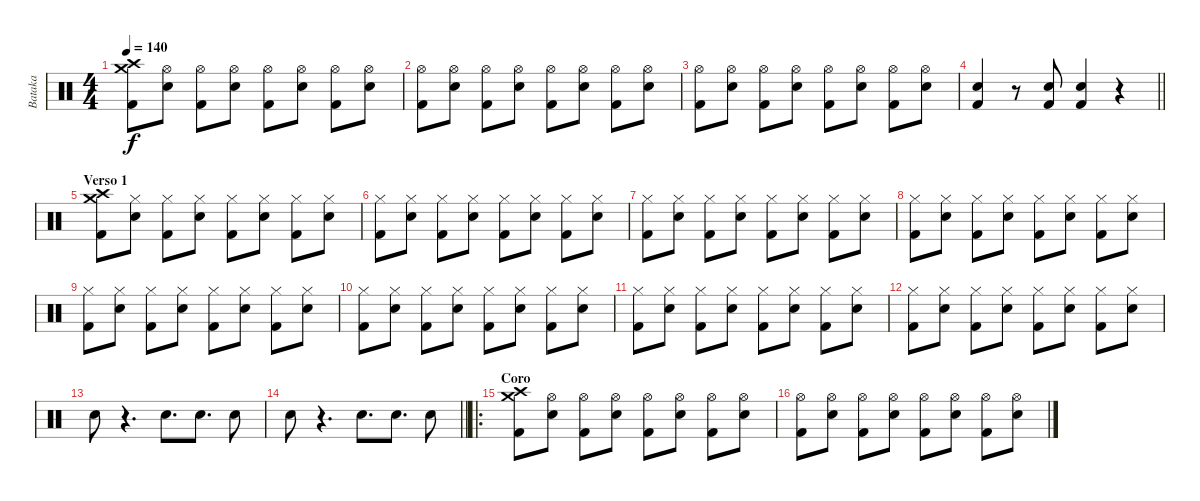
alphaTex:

\track ("Bataka" "Bataka") {instrument percussion}
\staff {score}
\articulation defaults
\ts (4 4)
\tempo 140
\clef neutral
\ks c
("Crash high (hit)" "Crash medium (hit)" "Kick (hit) 2").8{dy f} ("Hi-Hat (open)" "Electric Snare (hit)").8 ("Hi-Hat (open)" "Kick (hit) 2").8 ("Hi-Hat (open)" "Electric Snare (hit)").8 ("Hi-Hat (open)" "Kick (hit) 2").8 ("Hi-Hat (open)" "Electric Snare (hit)").8 ("Hi-Hat (open)" "Kick (hit) 2").8 ("Hi-Hat (open)" "Electric Snare (hit)").8 |
("Hi-Hat (open)" "Kick (hit) 2").8 ("Hi-Hat (open)" "Electric Snare (hit)").8 ("Hi-Hat (open)" "Kick (hit) 2").8 ("Hi-Hat (open)" "Electric Snare (hit)").8 ("Hi-Hat (open)" "Kick (hit) 2").8 ("Hi-Hat (open)" "Electric Snare (hit)").8 ("Hi-Hat (open)" "Kick (hit) 2").8 ("Hi-Hat (open)" "Electric Snare (hit)").8 |
("Hi-Hat (open)" "Kick (hit) 2").8 ("Hi-Hat (open)" "Electric Snare (hit)").8 ("Hi-Hat (open)" "Kick (hit) 2").8 ("Hi-Hat (open)" "Electric Snare (hit)").8 ("Hi-Hat (open)" "Kick (hit) 2").8 ("Hi-Hat (open)" "Electric Snare (hit)").8 ("Hi-Hat (open)" "Kick (hit) 2").8 ("Hi-Hat (open)" "Electric Snare (hit)").8 |
\barLineRight lightlight
("Electric Snare (hit)" "Kick (hit) 2").4 r.8 ("Electric Snare (hit)" "Kick (hit) 2").8 ("Electric Snare (hit)" "Kick (hit) 2").4 r.4 |
\section ("" "Verso 1")
("Crash high (hit)" "Crash medium (hit)" "Kick (hit) 2").8 ("Hi-Hat (closed)" "Electric Snare (hit)").8 ("Hi-Hat (closed)" "Kick (hit) 2").8 ("Hi-Hat (closed)" "Electric Snare (hit)").8 ("Hi-Hat (closed)" "Kick (hit) 2").8 ("Hi-Hat (closed)" "Electric Snare (hit)").8 ("Hi-Hat (closed)" "Kick (hit) 2").8 ("Hi-Hat (closed)" "Electric Snare (hit)").8 |
("Hi-Hat (closed)" "Kick (hit) 2").8 ("Hi-Hat (closed)" "Electric Snare (hit)").8 ("Hi-Hat (closed)" "Kick (hit) 2").8 ("Hi-Hat (closed)" "Electric Snare (hit)").8 ("Hi-Hat (closed)" "Kick (hit) 2").8 ("Hi-Hat (closed)" "Electric Snare (hit)").8 ("Hi-Hat (closed)" "Kick (hit) 2").8 ("Hi-Hat (closed)" "Electric Snare (hit)").8 |
("Hi-Hat (closed)" "Kick (hit) 2").8 ("Hi-Hat (closed)" "Electric Snare (hit)").8 ("Hi-Hat (closed)" "Kick (hit) 2").8 ("Hi-Hat (closed)" "Electric Snare (hit)").8 ("Hi-Hat (closed)" "Kick (hit) 2").8 ("Hi-Hat (closed)" "Electric Snare (hit)").8 ("Hi-Hat (closed)" "Kick (hit) 2").8 ("Hi-Hat (closed)" "Electric Snare (hit)").8 |
("Hi-Hat (closed)" "Kick (hit) 2").8 ("Hi-Hat (closed)" "Electric Snare (hit)").8 ("Hi-Hat (closed)" "Kick (hit) 2").8 ("Hi-Hat (closed)" "Electric Snare (hit)").8 ("Hi-Hat (closed)" "Kick (hit) 2").8 ("Hi-Hat (closed)" "Electric Snare (hit)").8 ("Hi-Hat (closed)" "Kick (hit) 2").8 ("Hi-Hat (closed)" "Electric Snare (hit)").8 |
("Hi-Hat (closed)" "Kick (hit) 2").8 ("Hi-Hat (closed)" "Electric Snare (hit)").8 ("Hi-Hat (closed)" "Kick (hit) 2").8 ("Hi-Hat (closed)" "Electric Snare (hit)").8 ("Hi-Hat (closed)" "Kick (hit) 2").8 ("Hi-Hat (closed)" "Electric Snare (hit)").8 ("Hi-Hat (closed)" "Kick (hit) 2").8 ("Hi-Hat (closed)" "Electric Snare (hit)").8 |
("Hi-Hat (closed)" "Kick (hit) 2").8 ("Hi-Hat (closed)" "Electric Snare (hit)").8 ("Hi-Hat (closed)" "Kick (hit) 2").8 ("Hi-Hat (closed)" "Electric Snare (hit)").8 ("Hi-Hat (closed)" "Kick (hit) 2").8 ("Hi-Hat (closed)" "Electric Snare (hit)").8 ("Hi-Hat (closed)" "Kick (hit) 2").8 ("Hi-Hat (closed)" "Electric Snare (hit)").8 |
("Hi-Hat (closed)" "Kick (hit) 2").8 ("Hi-Hat (closed)" "Electric Snare (hit)").8 ("Hi-Hat (closed)" "Kick (hit) 2").8 ("Hi-Hat (closed)" "Electric Snare (hit)").8 ("Hi-Hat (closed)" "Kick (hit) 2").8 ("Hi-Hat (closed)" "Electric Snare (hit)").8 ("Hi-Hat (closed)" "Kick (hit) 2").8 ("Hi-Hat (closed)" "Electric Snare (hit)").8 |
("Hi-Hat (closed)" "Kick (hit) 2").8 ("Hi-Hat (closed)" "Electric Snare (hit)").8 ("Hi-Hat (closed)" "Kick (hit) 2").8 ("Hi-Hat (closed)" "Electric Snare (hit)").8 ("Hi-Hat (closed)" "Kick (hit) 2").8 ("Hi-Hat (closed)" "Electric Snare (hit)").8 ("Hi-Hat (closed)" "Kick (hit) 2").8 ("Hi-Hat (closed)" "Electric Snare (hit)").8 |
"Electric Snare (hit)".8 r.4{d} "Electric Snare (hit)".8{d} "Electric Snare (hit)".8{d} "Electric Snare (hit)".8 |
\barLineRight lightlight "Electric Snare (hit)".8
r.4{d} "Electric Snare (hit)".8{d} "Electric Snare (hit)".8{d} "Electric Snare (hit)".8 |
\ro
\section ("" "Coro")
("Crash high (hit)" "Crash medium (hit)" "Kick (hit) 2").8 ("Hi-Hat (open)" "Electric Snare (hit)").8 ("Hi-Hat (open)" "Kick (hit) 2").8 ("Hi-Hat (open)" "Electric Snare (hit)").8 ("Hi-Hat (open)" "Kick (hit) 2").8 ("Hi-Hat (open)" "Electric Snare (hit)").8 ("Hi-Hat (open)" "Kick (hit) 2").8 ("Hi-Hat (open)" "Electric Snare (hit)").8 |
("Hi-Hat (open)" "Kick (hit) 2").8 ("Hi-Hat (open)" "Electric Snare (hit)").8 ("Hi-Hat (open)" "Kick (hit) 2").8 ("Hi-Hat (open)" "Electric Snare (hit)").8 ("Hi-Hat (open)" "Kick (hit) 2").8 ("Hi-Hat (open)" "Electric Snare (hit)").8 ("Hi-Hat (open)" "Kick (hit) 2").8 ("Hi-Hat (open)" "Electric Snare (hit)").8
